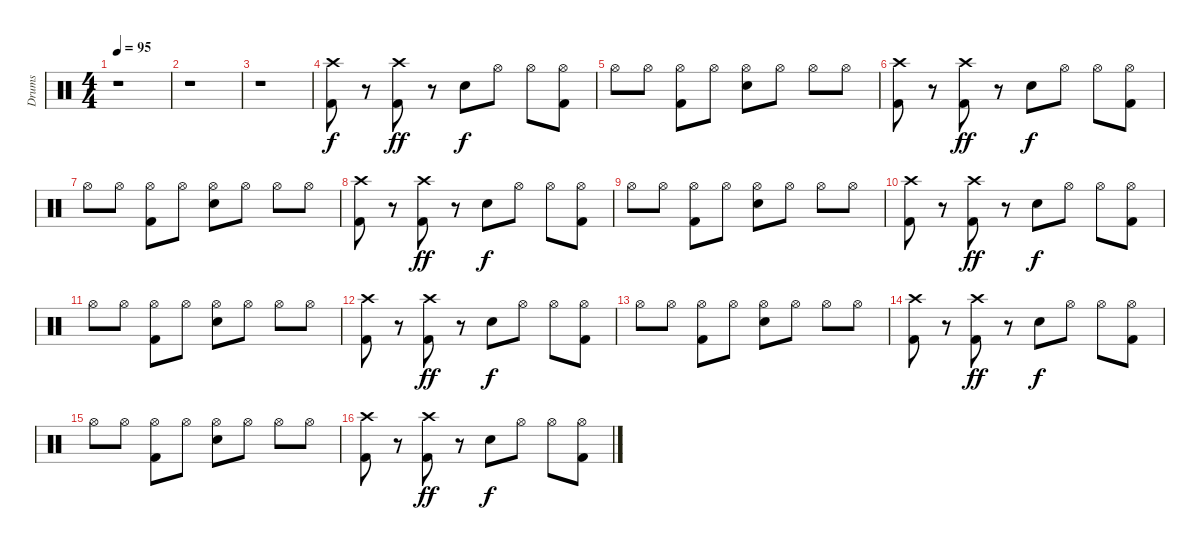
\track ("Drums" "Drums") {instrument percussion}
\staff {score}
\articulation defaults
\ts (4 4)
\tempo 95
\clef neutral
\ks c
r.1{dy f} |
r.1 |
r.1 |
("Crash high (hit)" "Kick (hit) 2").8 r.8 ("Crash high (hit)" "Kick (hit) 2").8{dy ff} r.8 "Snare (hit) 2".8{dy f} "Hi-Hat (open)".8 "Hi-Hat (open)".8 ("Hi-Hat (open)" "Kick (hit) 2").8 |
"Hi-Hat (open)".8 "Hi-Hat (open)".8 ("Hi-Hat (open)" "Kick (hit) 2").8 "Hi-Hat (open)".8 ("Snare (hit) 2" "Hi-Hat (open)").8 "Hi-Hat (open)".8 "Hi-Hat (open)".8 "Hi-Hat (open)".8 |
("Crash high (hit)" "Kick (hit) 2").8 r.8 ("Crash high (hit)" "Kick (hit) 2").8{dy ff} r.8 "Snare (hit) 2".8{dy f} "Hi-Hat (open)".8 "Hi-Hat (open)".8 ("Hi-Hat (open)" "Kick (hit) 2").8 |
"Hi-Hat (open)".8 "Hi-Hat (open)".8 ("Hi-Hat (open)" "Kick (hit) 2").8 "Hi-Hat (open)".8 ("Snare (hit) 2" "Hi-Hat (open)").8 "Hi-Hat (open)".8 "Hi-Hat (open)".8 "Hi-Hat (open)".8 |
("Crash high (hit)" "Kick (hit) 2").8 r.8 ("Crash high (hit)" "Kick (hit) 2").8{dy ff} r.8 "Snare (hit) 2".8{dy f} "Hi-Hat (open)".8 "Hi-Hat (open)".8 ("Hi-Hat (open)" "Kick (hit) 2").8 |
"Hi-Hat (open)".8 "Hi-Hat (open)".8 ("Hi-Hat (open)" "Kick (hit) 2").8 "Hi-Hat (open)".8 ("Snare (hit) 2" "Hi-Hat (open)").8 "Hi-Hat (open)".8 "Hi-Hat (open)".8 "Hi-Hat (open)".8 |
("Crash high (hit)" "Kick (hit) 2").8 r.8 ("Crash high (hit)" "Kick (hit) 2").8{dy ff} r.8 "Snare (hit) 2".8{dy f} "Hi-Hat (open)".8 "Hi-Hat (open)".8 ("Hi-Hat (open)" "Kick (hit) 2").8 |
"Hi-Hat (open)".8 "Hi-Hat (open)".8 ("Hi-Hat (open)" "Kick (hit) 2").8 "Hi-Hat (open)".8 ("Snare (hit) 2" "Hi-Hat (open)").8 "Hi-Hat (open)".8 "Hi-Hat (open)".8 "Hi-Hat (open)".8 |
("Crash high (hit)" "Kick (hit) 2").8 r.8 ("Crash high (hit)" "Kick (hit) 2").8{dy ff} r.8 "Snare (hit) 2".8{dy f} "Hi-Hat (open)".8 "Hi-Hat (open)".8 ("Hi-Hat (open)" "Kick (hit) 2").8 |
"Hi-Hat (open)".8 "Hi-Hat (open)".8 ("Hi-Hat (open)" "Kick (hit) 2").8 "Hi-Hat (open)".8 ("Snare (hit) 2" "Hi-Hat (open)").8 "Hi-Hat (open)".8 "Hi-Hat (open)".8 "Hi-Hat (open)".8 |
("Crash high (hit)" "Kick (hit) 2").8 r.8 ("Crash high (hit)" "Kick (hit) 2").8{dy ff} r.8 "Snare (hit) 2".8{dy f} "Hi-Hat (open)".8 "Hi-Hat (open)".8 ("Hi-Hat (open)" "Kick (hit) 2").8 |
"Hi-Hat (open)".8 "Hi-Hat (open)".8 ("Hi-Hat (open)" "Kick (hit) 2").8 "Hi-Hat (open)".8 ("Snare (hit) 2" "Hi-Hat (open)").8 "Hi-Hat (open)".8 "Hi-Hat (open)".8 "Hi-Hat (open)".8 |
("Crash high (hit)" "Kick (hit) 2").8 r.8 ("Crash high (hit)" "Kick (hit) 2").8{dy ff} r.8 "Snare (hit) 2".8{dy f} "Hi-Hat (open)".8 "Hi-Hat (open)".8 ("Hi-Hat (open)" "Kick (hit) 2").8
